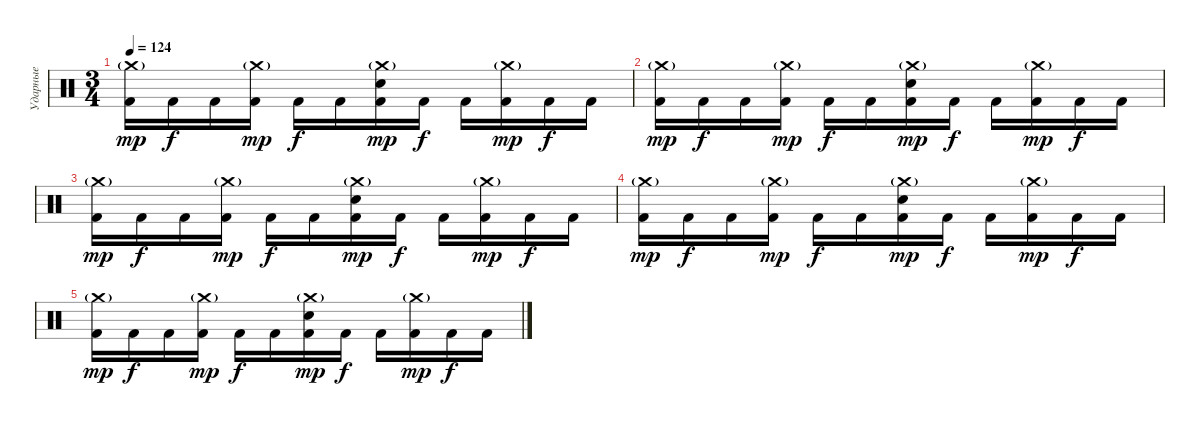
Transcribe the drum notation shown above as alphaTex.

\track ("Ударные" "Ударные") {instrument percussion}
\staff {score}
\articulation defaults
\ts (3 4)
\tempo 124
\clef neutral
\ks c
("Crash medium (hit)"{g} "Kick (hit) 2").16{dy mp} "Kick (hit) 2".16{dy f} "Kick (hit) 2".16 ("Crash medium (hit)"{g} "Kick (hit) 2").16{dy mp} "Kick (hit) 2".16{dy f} "Kick (hit) 2".16 ("Crash medium (hit)"{g} "Electric Snare (hit)" "Kick (hit) 2").16{dy mp} "Kick (hit) 2".16{dy f} "Kick (hit) 2".16 ("Crash medium (hit)"{g} "Kick (hit) 2").16{dy mp} "Kick (hit) 2".16{dy f} "Kick (hit) 2".16 |
("Crash medium (hit)"{g} "Kick (hit) 2").16{dy mp} "Kick (hit) 2".16{dy f} "Kick (hit) 2".16 ("Crash medium (hit)"{g} "Kick (hit) 2").16{dy mp} "Kick (hit) 2".16{dy f} "Kick (hit) 2".16 ("Crash medium (hit)"{g} "Electric Snare (hit)" "Kick (hit) 2").16{dy mp} "Kick (hit) 2".16{dy f} "Kick (hit) 2".16 ("Crash medium (hit)"{g} "Kick (hit) 2").16{dy mp} "Kick (hit) 2".16{dy f} "Kick (hit) 2".16 |
("Crash medium (hit)"{g} "Kick (hit) 2").16{dy mp} "Kick (hit) 2".16{dy f} "Kick (hit) 2".16 ("Crash medium (hit)"{g} "Kick (hit) 2").16{dy mp} "Kick (hit) 2".16{dy f} "Kick (hit) 2".16 ("Crash medium (hit)"{g} "Electric Snare (hit)" "Kick (hit) 2").16{dy mp} "Kick (hit) 2".16{dy f} "Kick (hit) 2".16 ("Crash medium (hit)"{g} "Kick (hit) 2").16{dy mp} "Kick (hit) 2".16{dy f} "Kick (hit) 2".16 |
("Crash medium (hit)"{g} "Kick (hit) 2").16{dy mp} "Kick (hit) 2".16{dy f} "Kick (hit) 2".16 ("Crash medium (hit)"{g} "Kick (hit) 2").16{dy mp} "Kick (hit) 2".16{dy f} "Kick (hit) 2".16 ("Crash medium (hit)"{g} "Electric Snare (hit)" "Kick (hit) 2").16{dy mp} "Kick (hit) 2".16{dy f} "Kick (hit) 2".16 ("Crash medium (hit)"{g} "Kick (hit) 2").16{dy mp} "Kick (hit) 2".16{dy f} "Kick (hit) 2".16 |
("Crash medium (hit)"{g} "Kick (hit) 2").16{dy mp} "Kick (hit) 2".16{dy f} "Kick (hit) 2".16 ("Crash medium (hit)"{g} "Kick (hit) 2").16{dy mp} "Kick (hit) 2".16{dy f} "Kick (hit) 2".16 ("Crash medium (hit)"{g} "Electric Snare (hit)" "Kick (hit) 2").16{dy mp} "Kick (hit) 2".16{dy f} "Kick (hit) 2".16 ("Crash medium (hit)"{g} "Kick (hit) 2").16{dy mp} "Kick (hit) 2".16{dy f} "Kick (hit) 2".16
